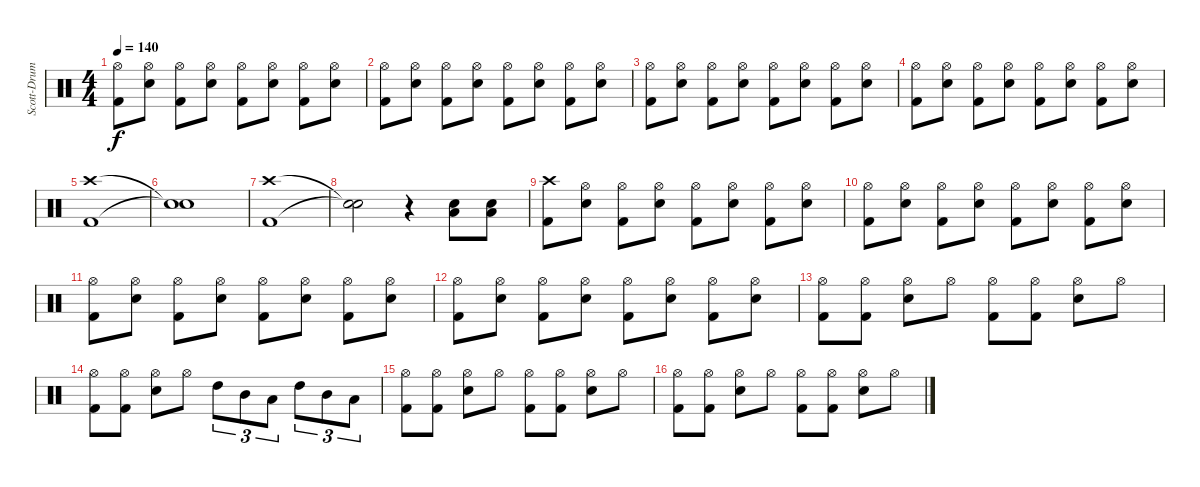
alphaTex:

\track ("Scott-Drums" "Scott-Drum") {instrument percussion}
\staff {score}
\articulation defaults
\ts (4 4)
\tempo 140
\clef neutral
\ks c
("Kick (hit) 2" "Hi-Hat (open)").8{dy f} ("Snare (hit) 2" "Hi-Hat (open)").8 ("Kick (hit) 2" "Hi-Hat (open)").8 ("Snare (hit) 2" "Hi-Hat (open)").8 ("Kick (hit) 2" "Hi-Hat (open)").8 ("Snare (hit) 2" "Hi-Hat (open)").8 ("Kick (hit) 2" "Hi-Hat (open)").8 ("Snare (hit) 2" "Hi-Hat (open)").8 |
("Kick (hit) 2" "Hi-Hat (open)").8 ("Snare (hit) 2" "Hi-Hat (open)").8 ("Kick (hit) 2" "Hi-Hat (open)").8 ("Snare (hit) 2" "Hi-Hat (open)").8 ("Kick (hit) 2" "Hi-Hat (open)").8 ("Snare (hit) 2" "Hi-Hat (open)").8 ("Kick (hit) 2" "Hi-Hat (open)").8 ("Snare (hit) 2" "Hi-Hat (open)").8 |
("Kick (hit) 2" "Hi-Hat (open)").8 ("Snare (hit) 2" "Hi-Hat (open)").8 ("Kick (hit) 2" "Hi-Hat (open)").8 ("Snare (hit) 2" "Hi-Hat (open)").8 ("Kick (hit) 2" "Hi-Hat (open)").8 ("Snare (hit) 2" "Hi-Hat (open)").8 ("Kick (hit) 2" "Hi-Hat (open)").8 ("Snare (hit) 2" "Hi-Hat (open)").8 |
("Kick (hit) 2" "Hi-Hat (open)").8 ("Snare (hit) 2" "Hi-Hat (open)").8 ("Kick (hit) 2" "Hi-Hat (open)").8 ("Snare (hit) 2" "Hi-Hat (open)").8 ("Kick (hit) 2" "Hi-Hat (open)").8 ("Snare (hit) 2" "Hi-Hat (open)").8 ("Kick (hit) 2" "Hi-Hat (open)").8 ("Snare (hit) 2" "Hi-Hat (open)").8 |
("Kick (hit) 2" "Crash high (hit)").1 |
("Snare (hit)"{t} "Snare (hit)"{t}).1 |
("Kick (hit) 2" "Crash high (hit)").1 |
("Snare (hit)"{t} "Snare (hit)"{t}).2 r.4 ("Snare (hit) 2" "Low Tom (hit)").8 ("Snare (hit) 2" "Low Tom (hit)").8 |
("Kick (hit) 2" "Crash high (hit)").8 ("Snare (hit) 2" "Hi-Hat (open)").8 ("Kick (hit) 2" "Hi-Hat (open)").8 ("Snare (hit) 2" "Hi-Hat (open)").8 ("Kick (hit) 2" "Hi-Hat (open)").8 ("Snare (hit) 2" "Hi-Hat (open)").8 ("Kick (hit) 2" "Hi-Hat (open)").8 ("Snare (hit) 2" "Hi-Hat (open)").8 |
("Kick (hit) 2" "Hi-Hat (open)").8 ("Snare (hit) 2" "Hi-Hat (open)").8 ("Kick (hit) 2" "Hi-Hat (open)").8 ("Snare (hit) 2" "Hi-Hat (open)").8 ("Kick (hit) 2" "Hi-Hat (open)").8 ("Snare (hit) 2" "Hi-Hat (open)").8 ("Kick (hit) 2" "Hi-Hat (open)").8 ("Snare (hit) 2" "Hi-Hat (open)").8 |
("Kick (hit) 2" "Hi-Hat (open)").8 ("Snare (hit) 2" "Hi-Hat (open)").8 ("Kick (hit) 2" "Hi-Hat (open)").8 ("Snare (hit) 2" "Hi-Hat (open)").8 ("Kick (hit) 2" "Hi-Hat (open)").8 ("Snare (hit) 2" "Hi-Hat (open)").8 ("Kick (hit) 2" "Hi-Hat (open)").8 ("Snare (hit) 2" "Hi-Hat (open)").8 |
("Kick (hit) 2" "Hi-Hat (open)").8 ("Snare (hit) 2" "Hi-Hat (open)").8 ("Kick (hit) 2" "Hi-Hat (open)").8 ("Snare (hit) 2" "Hi-Hat (open)").8 ("Kick (hit) 2" "Hi-Hat (open)").8 ("Snare (hit) 2" "Hi-Hat (open)").8 ("Kick (hit) 2" "Hi-Hat (open)").8 ("Snare (hit) 2" "Hi-Hat (open)").8 |
("Kick (hit) 2" "Hi-Hat (open)").8 ("Kick (hit) 2" "Hi-Hat (open)").8 ("Snare (hit) 2" "Hi-Hat (open)").8 "Hi-Hat (open)".8 ("Kick (hit) 2" "Hi-Hat (open)").8 ("Kick (hit) 2" "Hi-Hat (open)").8 ("Snare (hit) 2" "Hi-Hat (open)").8 "Hi-Hat (open)".8 |
("Kick (hit) 2" "Hi-Hat (open)").8 ("Kick (hit) 2" "Hi-Hat (open)").8 ("Snare (hit) 2" "Hi-Hat (open)").8 "Hi-Hat (open)".8 "High Tom (hit)".8{tu (3 2)} "Mid Tom (hit)".8{tu (3 2)} "Low Tom (hit)".8{tu (3 2)} "High Tom (hit)".8{tu (3 2)} "Mid Tom (hit)".8{tu (3 2)} "Low Tom (hit)".8{tu (3 2)} |
("Kick (hit) 2" "Hi-Hat (open)").8 ("Kick (hit) 2" "Hi-Hat (open)").8 ("Snare (hit) 2" "Hi-Hat (open)").8 "Hi-Hat (open)".8 ("Kick (hit) 2" "Hi-Hat (open)").8 ("Kick (hit) 2" "Hi-Hat (open)").8 ("Snare (hit) 2" "Hi-Hat (open)").8 "Hi-Hat (open)".8 |
("Kick (hit) 2" "Hi-Hat (open)").8 ("Kick (hit) 2" "Hi-Hat (open)").8 ("Snare (hit) 2" "Hi-Hat (open)").8 "Hi-Hat (open)".8 ("Kick (hit) 2" "Hi-Hat (open)").8 ("Kick (hit) 2" "Hi-Hat (open)").8 ("Snare (hit) 2" "Hi-Hat (open)").8 "Hi-Hat (open)".8
